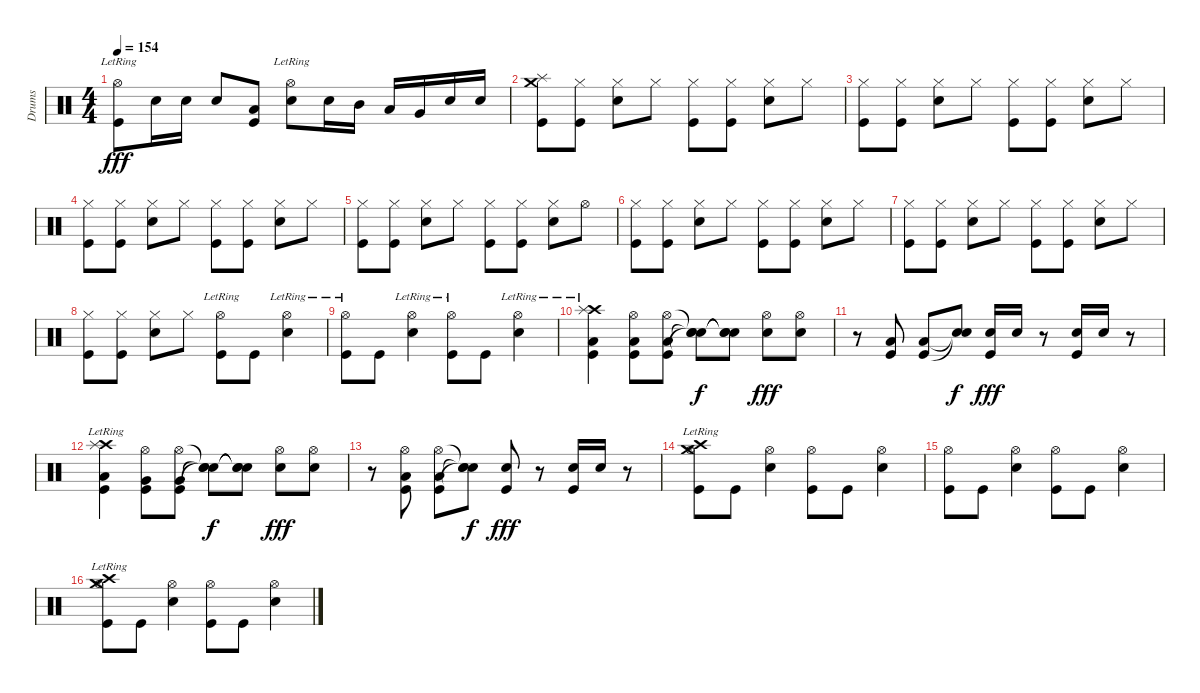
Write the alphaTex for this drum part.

\track ("Drums" "Drums") {instrument percussion}
\staff {score}
\articulation defaults
\ts (4 4)
\tempo 154
\clef neutral
\ks c
("Hi-Hat (open)"{lr} "Kick (hit)").8{dy fff} "Snare (hit) 2".16 "Snare (hit) 2".16 "Snare (hit) 2".8 ("Low Tom (hit)" "Kick (hit)").8 ("Hi-Hat (open)"{lr} "Snare (hit) 2").8 "Snare (hit) 2".16 "Mid Tom (hit)".16 "Low Tom (hit)".16 "Very Low Tom (hit)".16 "Snare (hit) 2".16 "Snare (hit) 2".16 |
("Splash (hit)" "Crash medium (hit)" "Kick (hit)").8 ("Hi-Hat (closed)" "Kick (hit)").8 ("Hi-Hat (closed)" "Snare (hit) 2").8 "Hi-Hat (closed)".8 ("Hi-Hat (closed)" "Kick (hit)").8 ("Hi-Hat (closed)" "Kick (hit)").8 ("Hi-Hat (closed)" "Snare (hit) 2").8 "Hi-Hat (closed)".8 |
("Hi-Hat (closed)" "Kick (hit)").8 ("Hi-Hat (closed)" "Kick (hit)").8 ("Hi-Hat (closed)" "Snare (hit) 2").8 "Hi-Hat (closed)".8 ("Hi-Hat (closed)" "Kick (hit)").8 ("Hi-Hat (closed)" "Kick (hit)").8 ("Hi-Hat (closed)" "Snare (hit) 2").8 "Hi-Hat (closed)".8 |
("Hi-Hat (closed)" "Kick (hit)").8 ("Hi-Hat (closed)" "Kick (hit)").8 ("Hi-Hat (closed)" "Snare (hit) 2").8 "Hi-Hat (closed)".8 ("Hi-Hat (closed)" "Kick (hit)").8 ("Hi-Hat (closed)" "Kick (hit)").8 ("Hi-Hat (closed)" "Snare (hit) 2").8 "Hi-Hat (closed)".8 |
("Hi-Hat (closed)" "Kick (hit)").8 ("Hi-Hat (closed)" "Kick (hit)").8 ("Hi-Hat (closed)" "Snare (hit) 2").8 "Hi-Hat (closed)".8 ("Hi-Hat (closed)" "Kick (hit)").8 ("Hi-Hat (closed)" "Kick (hit)").8 ("Hi-Hat (closed)" "Snare (hit) 2").8 "Hi-Hat (open)".8 |
("Hi-Hat (closed)" "Kick (hit)").8 ("Hi-Hat (closed)" "Kick (hit)").8 ("Hi-Hat (closed)" "Snare (hit) 2").8 "Hi-Hat (closed)".8 ("Hi-Hat (closed)" "Kick (hit)").8 ("Hi-Hat (closed)" "Kick (hit)").8 ("Hi-Hat (closed)" "Snare (hit) 2").8 "Hi-Hat (closed)".8 |
("Hi-Hat (closed)" "Kick (hit)").8 ("Hi-Hat (closed)" "Kick (hit)").8 ("Hi-Hat (closed)" "Snare (hit) 2").8 "Hi-Hat (closed)".8 ("Hi-Hat (closed)" "Kick (hit)").8 ("Hi-Hat (closed)" "Kick (hit)").8 ("Hi-Hat (closed)" "Snare (hit) 2").8 "Hi-Hat (closed)".8 |
("Hi-Hat (closed)" "Kick (hit)").8 ("Hi-Hat (closed)" "Kick (hit)").8 ("Hi-Hat (closed)" "Snare (hit) 2").8 "Hi-Hat (closed)".8 ("Hi-Hat (open)"{lr} "Kick (hit)").8 "Kick (hit)".8 ("Hi-Hat (open)"{lr} "Snare (hit) 2").4 |
("Hi-Hat (open)"{lr} "Kick (hit)").8 "Kick (hit)".8 ("Hi-Hat (open)"{lr} "Snare (hit) 2").4 ("Hi-Hat (open)"{lr} "Kick (hit)").8 "Kick (hit)".8 ("Hi-Hat (open)"{lr} "Snare (hit) 2").4 |
("Crash high (hit)"{lr} "Splash (hit)"{lr} "Low Tom (hit)"{lr} "Kick (hit)"{lr}).4 ("Hi-Hat (open)" "Low Tom (hit)" "Kick (hit)").8 ("Hi-Hat (open)" "Low Tom (hit)" "Kick (hit)").8 ("Snare (hit)"{t} "Snare (hit)"{t} "Snare (hit)"{t}).8{dy f} ("Snare (hit)"{t} "Snare (hit)"{t} "Snare (hit)"{t}).8 ("Hi-Hat (open)" "Snare (hit) 2").8{dy fff} ("Hi-Hat (open)" "Snare (hit) 2").8 |
r.8 ("Low Tom (hit)" "Kick (hit)").8 ("Low Tom (hit)" "Kick (hit)").8 ("Snare (hit)"{t} "Snare (hit)"{t}).8{dy f} ("Snare (hit) 2" "Kick (hit)").16{dy fff} "Snare (hit) 2".16 r.8 ("Snare (hit) 2" "Kick (hit)").16 "Snare (hit) 2".16 r.8 |
("Crash high (hit)"{lr} "Splash (hit)"{lr} "Low Tom (hit)"{lr} "Kick (hit)"{lr}).4 ("Hi-Hat (open)" "Very Low Tom (hit)" "Kick (hit)").8 ("Hi-Hat (open)" "Very Low Tom (hit)" "Kick (hit)").8 ("Snare (hit)"{t} "Snare (hit)"{t} "Snare (hit)"{t}).8{dy f} ("Snare (hit)"{t} "Snare (hit)"{t} "Snare (hit)"{t}).8 ("Hi-Hat (open)" "Snare (hit) 2").8{dy fff} ("Hi-Hat (open)" "Snare (hit) 2").8 |
r.8 ("Hi-Hat (open)" "Low Tom (hit)" "Kick (hit)").8 ("Hi-Hat (open)" "Low Tom (hit)" "Kick (hit)").8 ("Snare (hit)"{t} "Snare (hit)"{t} "Snare (hit)"{t}).8{dy f} ("Snare (hit) 2" "Kick (hit)").8{dy fff} r.8 ("Snare (hit) 2" "Kick (hit)").16 "Snare (hit) 2".16 r.8 |
("Crash high (hit)"{lr} "Hi-Hat (open)" "Crash medium (hit)"{lr} "Kick (hit)").8 "Kick (hit)".8 ("Hi-Hat (open)" "Snare (hit) 2").4 ("Hi-Hat (open)" "Kick (hit)").8 "Kick (hit)".8 ("Hi-Hat (open)" "Snare (hit) 2").4 |
("Hi-Hat (open)" "Kick (hit)").8 "Kick (hit)".8 ("Hi-Hat (open)" "Snare (hit) 2").4 ("Hi-Hat (open)" "Kick (hit)").8 "Kick (hit)".8 ("Hi-Hat (open)" "Snare (hit) 2").4 |
("Crash high (hit)"{lr} "Hi-Hat (open)" "Crash medium (hit)"{lr} "Kick (hit)").8 "Kick (hit)".8 ("Hi-Hat (open)" "Snare (hit) 2").4 ("Hi-Hat (open)" "Kick (hit)").8 "Kick (hit)".8 ("Hi-Hat (open)" "Snare (hit) 2").4
